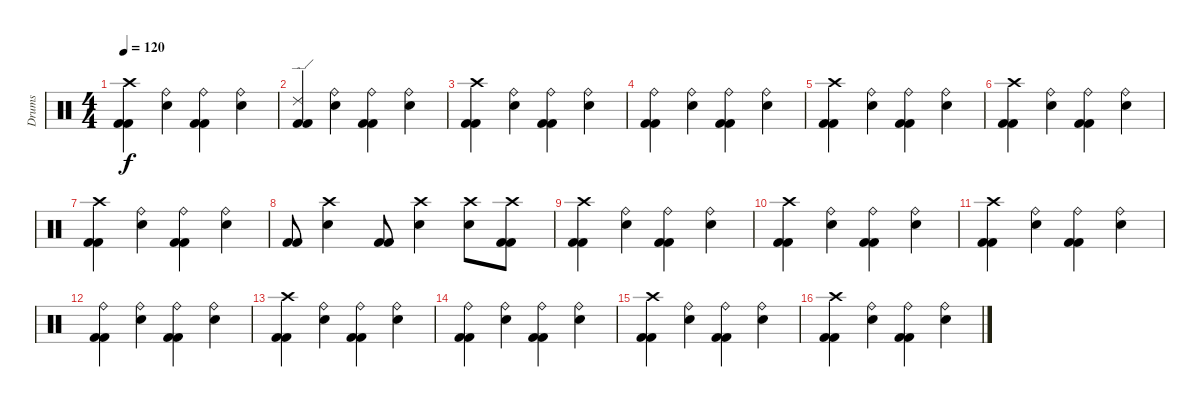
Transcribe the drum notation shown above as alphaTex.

\track ("Drums" "Drums") {instrument percussion}
\staff {score}
\articulation defaults
\ts (4 4)
\tempo 120
\clef neutral
\ks c
("Crash high (hit)" "Kick (hit) 2" "Kick (hit) 2").4{dy f} ("Ride (bell)" "Snare (hit) 2").4 ("Ride (bell)" "Kick (hit) 2" "Kick (hit) 2").4 ("Ride (bell)" "Snare (hit) 2").4 |
("Ride (edge) 2" "Kick (hit) 2" "Kick (hit) 2").4 ("Ride (bell)" "Snare (hit) 2").4 ("Ride (bell)" "Kick (hit) 2" "Kick (hit) 2").4 ("Ride (bell)" "Snare (hit) 2").4 |
("Crash high (hit)" "Kick (hit) 2" "Kick (hit) 2").4 ("Ride (bell)" "Snare (hit) 2").4 ("Ride (bell)" "Kick (hit) 2" "Kick (hit) 2").4 ("Ride (bell)" "Snare (hit) 2").4 |
("Ride (bell)" "Kick (hit) 2" "Kick (hit) 2").4 ("Ride (bell)" "Snare (hit) 2").4 ("Ride (bell)" "Kick (hit) 2" "Kick (hit) 2").4 ("Ride (bell)" "Snare (hit) 2").4 |
("Crash high (hit)" "Kick (hit) 2" "Kick (hit) 2").4 ("Ride (bell)" "Snare (hit) 2").4 ("Ride (bell)" "Kick (hit) 2" "Kick (hit) 2").4 ("Ride (bell)" "Snare (hit) 2").4 |
("Crash high (hit)" "Kick (hit) 2" "Kick (hit) 2").4 ("Ride (bell)" "Snare (hit) 2").4 ("Ride (bell)" "Kick (hit) 2" "Kick (hit) 2").4 ("Ride (bell)" "Snare (hit) 2").4 |
("Crash high (hit)" "Kick (hit) 2" "Kick (hit) 2").4 ("Ride (bell)" "Snare (hit) 2").4 ("Ride (bell)" "Kick (hit) 2" "Kick (hit) 2").4 ("Ride (bell)" "Snare (hit) 2").4 |
("Kick (hit) 2" "Kick (hit) 2").8 ("Crash high (hit)" "Snare (hit) 2").4 ("Kick (hit) 2" "Kick (hit) 2").8 ("Crash high (hit)" "Snare (hit) 2").4 ("Crash high (hit)" "Snare (hit) 2").8 ("Crash high (hit)" "Kick (hit) 2" "Kick (hit) 2").8 |
("Crash high (hit)" "Kick (hit) 2" "Kick (hit) 2").4 ("Ride (bell)" "Snare (hit) 2").4 ("Ride (bell)" "Kick (hit) 2" "Kick (hit) 2").4 ("Ride (bell)" "Snare (hit) 2").4 |
("Crash high (hit)" "Kick (hit) 2" "Kick (hit) 2").4 ("Ride (bell)" "Snare (hit) 2").4 ("Ride (bell)" "Kick (hit) 2" "Kick (hit) 2").4 ("Ride (bell)" "Snare (hit) 2").4 |
("Crash high (hit)" "Kick (hit) 2" "Kick (hit) 2").4 ("Ride (bell)" "Snare (hit) 2").4 ("Ride (bell)" "Kick (hit) 2" "Kick (hit) 2").4 ("Ride (bell)" "Snare (hit) 2").4 |
("Ride (bell)" "Kick (hit) 2" "Kick (hit) 2").4 ("Ride (bell)" "Snare (hit) 2").4 ("Ride (bell)" "Kick (hit) 2" "Kick (hit) 2").4 ("Ride (bell)" "Snare (hit) 2").4 |
("Crash high (hit)" "Kick (hit) 2" "Kick (hit) 2").4 ("Ride (bell)" "Snare (hit) 2").4 ("Ride (bell)" "Kick (hit) 2" "Kick (hit) 2").4 ("Ride (bell)" "Snare (hit) 2").4 |
("Ride (bell)" "Kick (hit) 2" "Kick (hit) 2").4 ("Ride (bell)" "Snare (hit) 2").4 ("Ride (bell)" "Kick (hit) 2" "Kick (hit) 2").4 ("Ride (bell)" "Snare (hit) 2").4 |
("Crash high (hit)" "Kick (hit) 2" "Kick (hit) 2").4 ("Ride (bell)" "Snare (hit) 2").4 ("Ride (bell)" "Kick (hit) 2" "Kick (hit) 2").4 ("Ride (bell)" "Snare (hit) 2").4 |
("Crash high (hit)" "Kick (hit) 2" "Kick (hit) 2").4 ("Ride (bell)" "Snare (hit) 2").4 ("Ride (bell)" "Kick (hit) 2" "Kick (hit) 2").4 ("Ride (bell)" "Snare (hit) 2").4
